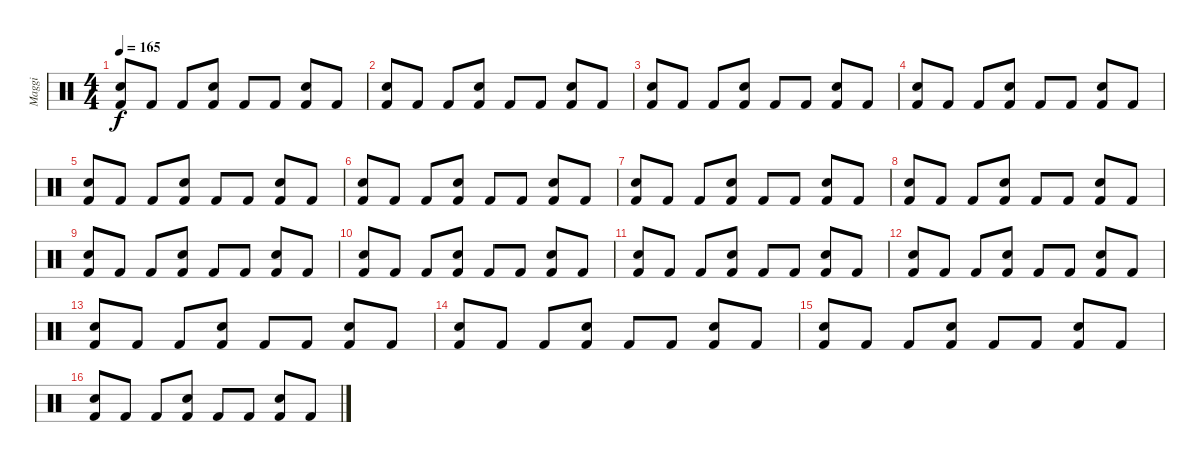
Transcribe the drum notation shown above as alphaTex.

\track ("Maggi" "Maggi") {instrument percussion}
\staff {score}
\articulation defaults
\ts (4 4)
\tempo 165
\clef neutral
\ks c
("Snare (hit) 2" "Kick (hit) 2").8{dy f} "Kick (hit) 2".8 "Kick (hit) 2".8 ("Snare (hit) 2" "Kick (hit) 2").8 "Kick (hit) 2".8 "Kick (hit) 2".8 ("Snare (hit) 2" "Kick (hit) 2").8 "Kick (hit) 2".8 |
("Snare (hit) 2" "Kick (hit) 2").8 "Kick (hit) 2".8 "Kick (hit) 2".8 ("Snare (hit) 2" "Kick (hit) 2").8 "Kick (hit) 2".8 "Kick (hit) 2".8 ("Snare (hit) 2" "Kick (hit) 2").8 "Kick (hit) 2".8 |
("Snare (hit) 2" "Kick (hit) 2").8 "Kick (hit) 2".8 "Kick (hit) 2".8 ("Snare (hit) 2" "Kick (hit) 2").8 "Kick (hit) 2".8 "Kick (hit) 2".8 ("Snare (hit) 2" "Kick (hit) 2").8 "Kick (hit) 2".8 |
("Snare (hit) 2" "Kick (hit) 2").8 "Kick (hit) 2".8 "Kick (hit) 2".8 ("Snare (hit) 2" "Kick (hit) 2").8 "Kick (hit) 2".8 "Kick (hit) 2".8 ("Snare (hit) 2" "Kick (hit) 2").8 "Kick (hit) 2".8 |
("Snare (hit) 2" "Kick (hit) 2").8 "Kick (hit) 2".8 "Kick (hit) 2".8 ("Snare (hit) 2" "Kick (hit) 2").8 "Kick (hit) 2".8 "Kick (hit) 2".8 ("Snare (hit) 2" "Kick (hit) 2").8 "Kick (hit) 2".8 |
("Snare (hit) 2" "Kick (hit) 2").8 "Kick (hit) 2".8 "Kick (hit) 2".8 ("Snare (hit) 2" "Kick (hit) 2").8 "Kick (hit) 2".8 "Kick (hit) 2".8 ("Snare (hit) 2" "Kick (hit) 2").8 "Kick (hit) 2".8 |
("Snare (hit) 2" "Kick (hit) 2").8 "Kick (hit) 2".8 "Kick (hit) 2".8 ("Snare (hit) 2" "Kick (hit) 2").8 "Kick (hit) 2".8 "Kick (hit) 2".8 ("Snare (hit) 2" "Kick (hit) 2").8 "Kick (hit) 2".8 |
("Snare (hit) 2" "Kick (hit) 2").8 "Kick (hit) 2".8 "Kick (hit) 2".8 ("Snare (hit) 2" "Kick (hit) 2").8 "Kick (hit) 2".8 "Kick (hit) 2".8 ("Snare (hit) 2" "Kick (hit) 2").8 "Kick (hit) 2".8 |
("Snare (hit) 2" "Kick (hit) 2").8 "Kick (hit) 2".8 "Kick (hit) 2".8 ("Snare (hit) 2" "Kick (hit) 2").8 "Kick (hit) 2".8 "Kick (hit) 2".8 ("Snare (hit) 2" "Kick (hit) 2").8 "Kick (hit) 2".8 |
("Snare (hit) 2" "Kick (hit) 2").8 "Kick (hit) 2".8 "Kick (hit) 2".8 ("Snare (hit) 2" "Kick (hit) 2").8 "Kick (hit) 2".8 "Kick (hit) 2".8 ("Snare (hit) 2" "Kick (hit) 2").8 "Kick (hit) 2".8 |
("Snare (hit) 2" "Kick (hit) 2").8 "Kick (hit) 2".8 "Kick (hit) 2".8 ("Snare (hit) 2" "Kick (hit) 2").8 "Kick (hit) 2".8 "Kick (hit) 2".8 ("Snare (hit) 2" "Kick (hit) 2").8 "Kick (hit) 2".8 |
("Snare (hit) 2" "Kick (hit) 2").8 "Kick (hit) 2".8 "Kick (hit) 2".8 ("Snare (hit) 2" "Kick (hit) 2").8 "Kick (hit) 2".8 "Kick (hit) 2".8 ("Snare (hit) 2" "Kick (hit) 2").8 "Kick (hit) 2".8 |
("Snare (hit) 2" "Kick (hit) 2").8 "Kick (hit) 2".8 "Kick (hit) 2".8 ("Snare (hit) 2" "Kick (hit) 2").8 "Kick (hit) 2".8 "Kick (hit) 2".8 ("Snare (hit) 2" "Kick (hit) 2").8 "Kick (hit) 2".8 |
("Snare (hit) 2" "Kick (hit) 2").8 "Kick (hit) 2".8 "Kick (hit) 2".8 ("Snare (hit) 2" "Kick (hit) 2").8 "Kick (hit) 2".8 "Kick (hit) 2".8 ("Snare (hit) 2" "Kick (hit) 2").8 "Kick (hit) 2".8 |
("Snare (hit) 2" "Kick (hit) 2").8 "Kick (hit) 2".8 "Kick (hit) 2".8 ("Snare (hit) 2" "Kick (hit) 2").8 "Kick (hit) 2".8 "Kick (hit) 2".8 ("Snare (hit) 2" "Kick (hit) 2").8 "Kick (hit) 2".8 |
("Snare (hit) 2" "Kick (hit) 2").8 "Kick (hit) 2".8 "Kick (hit) 2".8 ("Snare (hit) 2" "Kick (hit) 2").8 "Kick (hit) 2".8 "Kick (hit) 2".8 ("Snare (hit) 2" "Kick (hit) 2").8 "Kick (hit) 2".8
